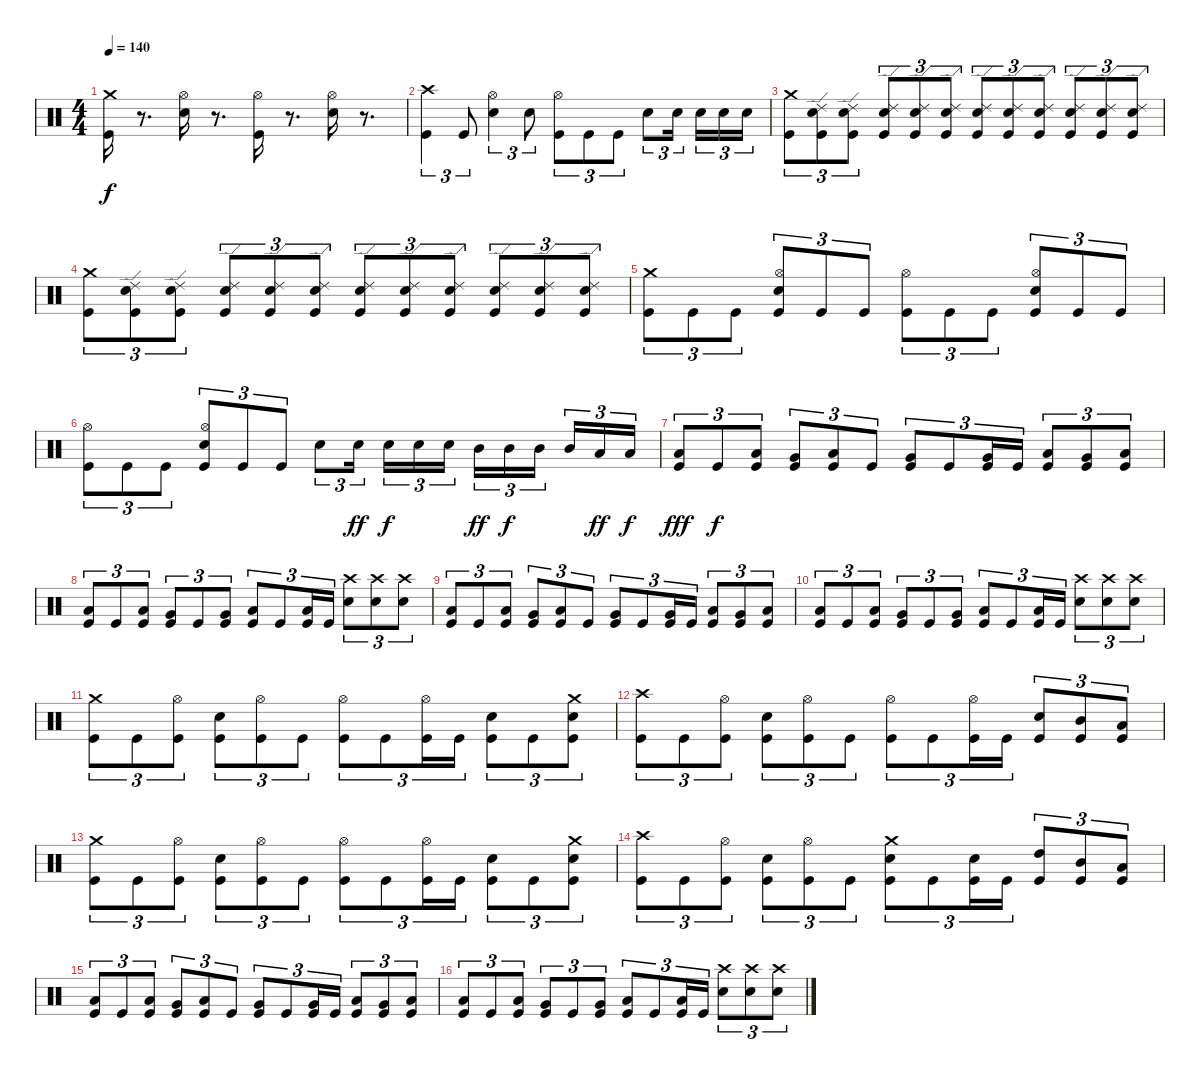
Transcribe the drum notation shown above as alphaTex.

\track "" {instrument percussion}
\staff {score}
\articulation defaults
\ts (4 4)
\tempo 140
\clef neutral
\ks c
("Crash medium (hit)" "Kick (hit)").16{dy f} r.8{d} ("Hi-Hat (open)" "Snare (hit) 2").16 r.8{d} ("Hi-Hat (open)" "Kick (hit)").16 r.8{d} ("Hi-Hat (open)" "Snare (hit) 2").16 r.8{d} |
("Crash high (hit)" "Kick (hit)").4{tu (3 2)} "Kick (hit)".8{tu (3 2)} ("Hi-Hat (open)" "Snare (hit) 2").4{tu (3 2)} "Snare (hit) 2".8{tu (3 2)} ("Hi-Hat (open)" "Kick (hit)").8{tu (3 2)} "Kick (hit)".8{tu (3 2)} "Kick (hit)".8{tu (3 2)} "Snare (hit) 2".8{tu (3 2)} "Snare (hit) 2".16{tu (3 2) beam splitsecondary} "Snare (hit) 2".16{tu (3 2)} "Snare (hit) 2".16{tu (3 2)} "Snare (hit) 2".16{tu (3 2)} |
("Kick (hit)" "Crash medium (hit)").8{tu (3 2)} ("Kick (hit)" "Ride (edge) 2" "Snare (hit) 2").8{tu (3 2)} ("Ride (edge) 2" "Kick (hit)" "Snare (hit) 2").8{tu (3 2)} ("Ride (edge) 2" "Kick (hit)" "Snare (hit) 2").8{tu (3 2)} ("Snare (hit) 2" "Kick (hit)" "Ride (edge) 2").8{tu (3 2)} ("Snare (hit) 2" "Kick (hit)" "Ride (edge) 2").8{tu (3 2)} ("Snare (hit) 2" "Ride (edge) 2" "Kick (hit)").8{tu (3 2)} ("Snare (hit) 2" "Kick (hit)" "Ride (edge) 2").8{tu (3 2)} ("Snare (hit) 2" "Ride (edge) 2" "Kick (hit)").8{tu (3 2)} ("Snare (hit) 2" "Kick (hit)" "Ride (edge) 2").8{tu (3 2)} ("Snare (hit) 2" "Ride (edge) 2" "Kick (hit)").8{tu (3 2)} ("Snare (hit) 2" "Ride (edge) 2" "Kick (hit)").8{tu (3 2)} |
("Kick (hit)" "Crash medium (hit)").8{tu (3 2)} ("Kick (hit)" "Ride (edge) 2" "Snare (hit) 2").8{tu (3 2)} ("Kick (hit)" "Ride (edge) 2" "Snare (hit) 2").8{tu (3 2)} ("Kick (hit)" "Ride (edge) 2" "Snare (hit) 2").8{tu (3 2)} ("Kick (hit)" "Snare (hit) 2" "Ride (edge) 2").8{tu (3 2)} ("Kick (hit)" "Snare (hit) 2" "Ride (edge) 2").8{tu (3 2)} ("Kick (hit)" "Snare (hit) 2" "Ride (edge) 2").8{tu (3 2)} ("Kick (hit)" "Snare (hit) 2" "Ride (edge) 2").8{tu (3 2)} ("Kick (hit)" "Snare (hit) 2" "Ride (edge) 2").8{tu (3 2)} ("Kick (hit)" "Snare (hit) 2" "Ride (edge) 2").8{tu (3 2)} ("Kick (hit)" "Snare (hit) 2" "Ride (edge) 2").8{tu (3 2)} ("Kick (hit)" "Snare (hit) 2" "Ride (edge) 2").8{tu (3 2)} |
("Crash medium (hit)" "Kick (hit)").8{tu (3 2)} "Kick (hit)".8{tu (3 2)} "Kick (hit)".8{tu (3 2)} ("Hi-Hat (open)" "Kick (hit)" "Snare (hit) 2").8{tu (3 2)} "Kick (hit)".8{tu (3 2)} "Kick (hit)".8{tu (3 2)} ("Hi-Hat (open)" "Kick (hit)").8{tu (3 2)} "Kick (hit)".8{tu (3 2)} "Kick (hit)".8{tu (3 2)} ("Hi-Hat (open)" "Snare (hit) 2" "Kick (hit)").8{tu (3 2)} "Kick (hit)".8{tu (3 2)} "Kick (hit)".8{tu (3 2)} |
("Hi-Hat (open)" "Kick (hit)").8{tu (3 2)} "Kick (hit)".8{tu (3 2)} "Kick (hit)".8{tu (3 2)} ("Hi-Hat (open)" "Kick (hit)" "Snare (hit) 2").8{tu (3 2)} "Kick (hit)".8{tu (3 2)} "Kick (hit)".8{tu (3 2)} "Snare (hit) 2".8{tu (3 2)} "Snare (hit) 2".16{tu (3 2) dy ff beam splitsecondary} "Snare (hit) 2".16{tu (3 2) dy f} "Snare (hit) 2".16{tu (3 2)} "Snare (hit) 2".16{tu (3 2)} "Mid Tom (hit)".16{tu (3 2) dy ff} "Mid Tom (hit)".16{tu (3 2) dy f} "Mid Tom (hit)".16{tu (3 2) beam splitsecondary} "Mid Tom (hit)".16{tu (3 2)} "Low Tom (hit)".16{tu (3 2) dy ff} "Low Tom (hit)".16{tu (3 2) dy f} |
("Low Tom (hit)" "Kick (hit)").8{tu (3 2) dy fff} "Kick (hit)".8{tu (3 2) dy f} ("Low Tom (hit)" "Kick (hit)").8{tu (3 2)} ("Very Low Tom (hit)" "Kick (hit)").8{tu (3 2)} ("Low Tom (hit)" "Kick (hit)").8{tu (3 2)} "Kick (hit)".8{tu (3 2)} ("Very Low Tom (hit)" "Kick (hit)").8{tu (3 2)} "Kick (hit)".8{tu (3 2)} ("Very Low Tom (hit)" "Kick (hit)").16{tu (3 2)} "Kick (hit)".16{tu (3 2)} ("Low Floor Tom (hit)" "Kick (hit)").8{tu (3 2)} ("Kick (hit)" "Very Low Tom (hit)").8{tu (3 2)} ("Kick (hit)" "Low Floor Tom (hit)").8{tu (3 2)} |
("Low Tom (hit)" "Kick (hit)").8{tu (3 2)} "Kick (hit)".8{tu (3 2)} ("Kick (hit)" "Low Tom (hit)").8{tu (3 2)} ("Very Low Tom (hit)" "Kick (hit)").8{tu (3 2)} "Kick (hit)".8{tu (3 2)} ("Very Low Tom (hit)" "Kick (hit)").8{tu (3 2)} ("Low Floor Tom (hit)" "Kick (hit)").8{tu (3 2)} "Kick (hit)".8{tu (3 2)} ("Low Floor Tom (hit)" "Kick (hit)").16{tu (3 2)} "Kick (hit)".16{tu (3 2)} ("Snare (hit) 2" "Crash high (hit)").8{tu (3 2)} ("Snare (hit) 2" "Crash high (hit)").8{tu (3 2)} ("Snare (hit) 2" "Crash high (hit)").8{tu (3 2)} |
("Low Tom (hit)" "Kick (hit)").8{tu (3 2)} "Kick (hit)".8{tu (3 2)} ("Low Tom (hit)" "Kick (hit)").8{tu (3 2)} ("Very Low Tom (hit)" "Kick (hit)").8{tu (3 2)} ("Low Tom (hit)" "Kick (hit)").8{tu (3 2)} "Kick (hit)".8{tu (3 2)} ("Very Low Tom (hit)" "Kick (hit)").8{tu (3 2)} "Kick (hit)".8{tu (3 2)} ("Very Low Tom (hit)" "Kick (hit)").16{tu (3 2)} "Kick (hit)".16{tu (3 2)} ("Low Floor Tom (hit)" "Kick (hit)").8{tu (3 2)} ("Kick (hit)" "Very Low Tom (hit)").8{tu (3 2)} ("Kick (hit)" "Low Floor Tom (hit)").8{tu (3 2)} |
("Low Tom (hit)" "Kick (hit)").8{tu (3 2)} "Kick (hit)".8{tu (3 2)} ("Kick (hit)" "Low Tom (hit)").8{tu (3 2)} ("Very Low Tom (hit)" "Kick (hit)").8{tu (3 2)} "Kick (hit)".8{tu (3 2)} ("Very Low Tom (hit)" "Kick (hit)").8{tu (3 2)} ("Low Floor Tom (hit)" "Kick (hit)").8{tu (3 2)} "Kick (hit)".8{tu (3 2)} ("Low Floor Tom (hit)" "Kick (hit)").16{tu (3 2)} "Kick (hit)".16{tu (3 2)} ("Snare (hit) 2" "Crash high (hit)").8{tu (3 2)} ("Snare (hit) 2" "Crash high (hit)").8{tu (3 2)} ("Snare (hit) 2" "Crash high (hit)").8{tu (3 2)} |
("Crash medium (hit)" "Kick (hit)").8{tu (3 2)} "Kick (hit)".8{tu (3 2)} ("Hi-Hat (open)" "Kick (hit)").8{tu (3 2)} ("Snare (hit) 2" "Kick (hit)").8{tu (3 2)} ("Hi-Hat (open)" "Kick (hit)").8{tu (3 2)} "Kick (hit)".8{tu (3 2)} ("Hi-Hat (open)" "Kick (hit)").8{tu (3 2)} "Kick (hit)".8{tu (3 2)} ("Hi-Hat (open)" "Kick (hit)").16{tu (3 2)} "Kick (hit)".16{tu (3 2)} ("Snare (hit) 2" "Kick (hit)").8{tu (3 2)} "Kick (hit)".8{tu (3 2)} ("Snare (hit) 2" "Crash medium (hit)" "Kick (hit)").8{tu (3 2)} |
("Crash high (hit)" "Kick (hit)").8{tu (3 2)} "Kick (hit)".8{tu (3 2)} ("Kick (hit)" "Hi-Hat (open)").8{tu (3 2)} ("Kick (hit)" "Snare (hit) 2").8{tu (3 2)} ("Kick (hit)" "Hi-Hat (open)").8{tu (3 2)} "Kick (hit)".8{tu (3 2)} ("Hi-Hat (open)" "Kick (hit)").8{tu (3 2)} "Kick (hit)".8{tu (3 2)} ("Hi-Hat (open)" "Kick (hit)").16{tu (3 2)} "Kick (hit)".16{tu (3 2)} ("Kick (hit)" "Snare (hit) 2").8{tu (3 2)} ("Kick (hit)" "Mid Tom (hit)").8{tu (3 2)} ("Kick (hit)" "Low Tom (hit)").8{tu (3 2)} |
("Crash medium (hit)" "Kick (hit)").8{tu (3 2)} "Kick (hit)".8{tu (3 2)} ("Kick (hit)" "Hi-Hat (open)").8{tu (3 2)} ("Kick (hit)" "Snare (hit) 2").8{tu (3 2)} ("Kick (hit)" "Hi-Hat (open)").8{tu (3 2)} "Kick (hit)".8{tu (3 2)} ("Hi-Hat (open)" "Kick (hit)").8{tu (3 2)} "Kick (hit)".8{tu (3 2)} ("Hi-Hat (open)" "Kick (hit)").16{tu (3 2)} "Kick (hit)".16{tu (3 2)} ("Kick (hit)" "Snare (hit) 2").8{tu (3 2)} "Kick (hit)".8{tu (3 2)} ("Kick (hit)" "Snare (hit) 2" "Crash medium (hit)").8{tu (3 2)} |
("Crash high (hit)" "Kick (hit)").8{tu (3 2)} "Kick (hit)".8{tu (3 2)} ("Kick (hit)" "Hi-Hat (open)").8{tu (3 2)} ("Kick (hit)" "Snare (hit) 2").8{tu (3 2)} ("Kick (hit)" "Hi-Hat (open)").8{tu (3 2)} "Kick (hit)".8{tu (3 2)} ("Snare (hit) 2" "Crash medium (hit)" "Kick (hit)").8{tu (3 2)} "Kick (hit)".8{tu (3 2)} ("Snare (hit) 2" "Kick (hit)").16{tu (3 2)} "Kick (hit)".16{tu (3 2)} ("Kick (hit)" "High Tom (hit)").8{tu (3 2)} ("Kick (hit)" "Mid Tom (hit)").8{tu (3 2)} ("Kick (hit)" "Low Tom (hit)").8{tu (3 2)} |
("Low Tom (hit)" "Kick (hit)").8{tu (3 2)} "Kick (hit)".8{tu (3 2)} ("Low Tom (hit)" "Kick (hit)").8{tu (3 2)} ("Very Low Tom (hit)" "Kick (hit)").8{tu (3 2)} ("Low Tom (hit)" "Kick (hit)").8{tu (3 2)} "Kick (hit)".8{tu (3 2)} ("Very Low Tom (hit)" "Kick (hit)").8{tu (3 2)} "Kick (hit)".8{tu (3 2)} ("Very Low Tom (hit)" "Kick (hit)").16{tu (3 2)} "Kick (hit)".16{tu (3 2)} ("Low Floor Tom (hit)" "Kick (hit)").8{tu (3 2)} ("Kick (hit)" "Very Low Tom (hit)").8{tu (3 2)} ("Kick (hit)" "Low Floor Tom (hit)").8{tu (3 2)} |
("Low Tom (hit)" "Kick (hit)").8{tu (3 2)} "Kick (hit)".8{tu (3 2)} ("Kick (hit)" "Low Tom (hit)").8{tu (3 2)} ("Very Low Tom (hit)" "Kick (hit)").8{tu (3 2)} "Kick (hit)".8{tu (3 2)} ("Very Low Tom (hit)" "Kick (hit)").8{tu (3 2)} ("Low Floor Tom (hit)" "Kick (hit)").8{tu (3 2)} "Kick (hit)".8{tu (3 2)} ("Low Floor Tom (hit)" "Kick (hit)").16{tu (3 2)} "Kick (hit)".16{tu (3 2)} ("Snare (hit) 2" "Crash high (hit)").8{tu (3 2)} ("Snare (hit) 2" "Crash high (hit)").8{tu (3 2)} ("Snare (hit) 2" "Crash high (hit)").8{tu (3 2)}
